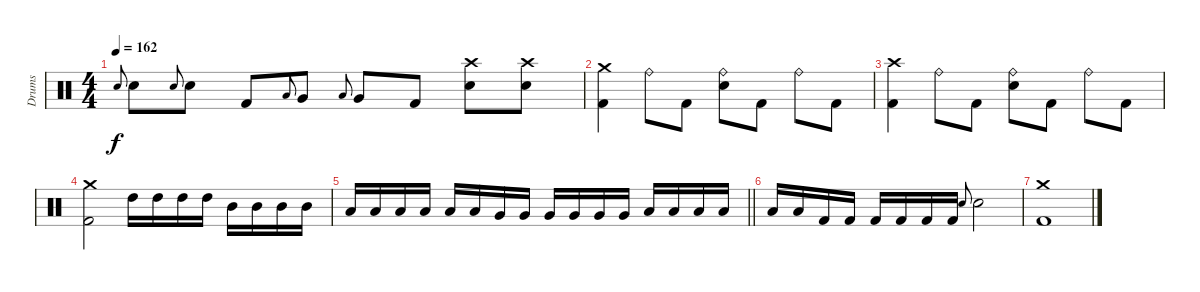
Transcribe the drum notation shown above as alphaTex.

\track ("Drums" "Drums") {instrument percussion}
\staff {score}
\articulation defaults
\ts (4 4)
\tempo 162
\clef neutral
\ks c "Snare (hit) 2".8{gr onbeat dy f} "Snare (hit) 2".8 "Snare (hit) 2".8{gr onbeat} "Snare (hit) 2".8 "Kick (hit) 2".8 "Low Floor Tom (hit)".8{gr onbeat} "Very Low Tom (hit)".8 "Low Floor Tom (hit)".8{gr onbeat} "Very Low Tom (hit)".8 "Kick (hit) 2".8
("Crash high (hit)" "Snare (hit) 2").8 ("Crash high (hit)" "Snare (hit) 2").8 |
("Crash medium (hit)" "Kick (hit) 2").4 "Ride (bell)".8 "Kick (hit) 2".8 ("Ride (bell)" "Snare (hit) 2").8 "Kick (hit) 2".8 "Ride (bell)".8 "Kick (hit) 2".8 |
("Crash high (hit)" "Kick (hit) 2").4 "Ride (bell)".8 "Kick (hit) 2".8 ("Ride (bell)" "Snare (hit) 2").8 "Kick (hit) 2".8 "Ride (bell)".8 "Kick (hit) 2".8 |
("Crash medium (hit)" "Kick (hit) 2").2 "High Tom (hit)".16 "High Tom (hit)".16 "High Tom (hit)".16 "High Tom (hit)".16 "Mid Tom (hit)".16 "Mid Tom (hit)".16 "Mid Tom (hit)".16 "Mid Tom (hit)".16 |
\barLineRight lightlight "Low Tom (hit)".16 "Low Tom (hit)".16 "Low Tom (hit)".16 "Low Tom (hit)".16 "Low Tom (hit)".16 "Low Tom (hit)".16 "Very Low Tom (hit)".16 "Very Low Tom (hit)".16 "Very Low Tom (hit)".16 "Very Low Tom (hit)".16 "Very Low Tom (hit)".16 "Very Low Tom (hit)".16 "Low Floor Tom (hit)".16 "Low Floor Tom (hit)".16 "Low Floor Tom (hit)".16 "Low Floor Tom (hit)".16
|
"Low Floor Tom (hit)".16 "Low Floor Tom (hit)".16 "Kick (hit) 2".16 "Kick (hit) 2".16 "Kick (hit) 2".16 "Kick (hit) 2".16 "Kick (hit) 2".16 "Kick (hit) 2".16 "Snare (hit) 2".8{gr onbeat} "Snare (hit) 2".2 |
("Crash medium (hit)" "Kick (hit) 2").1
